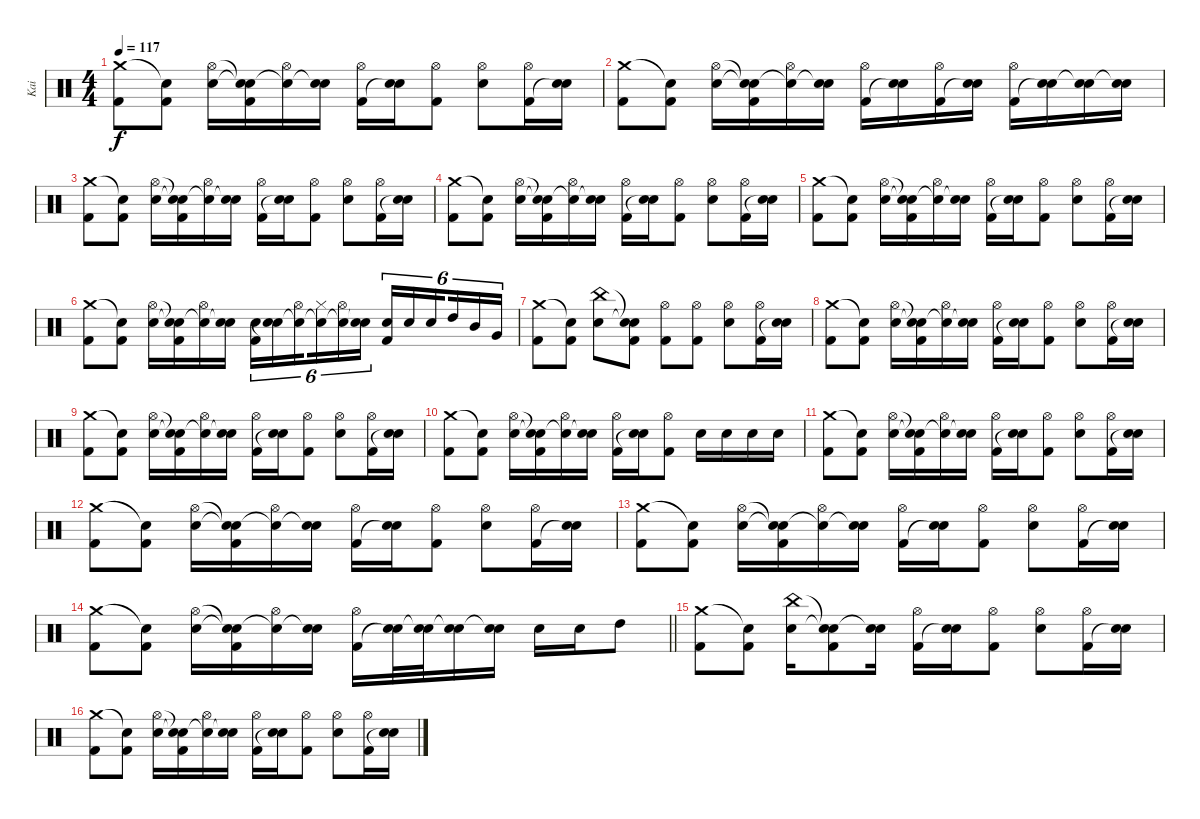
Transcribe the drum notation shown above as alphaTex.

\track ("Kai" "Kai") {instrument percussion}
\staff {score}
\articulation defaults
\ts (4 4)
\tempo 117
\clef neutral
\ks c
("Crash medium (hit)" "Kick (hit) 2").8{dy f} ("Snare (hit)"{t} "Kick (hit) 2").8 ("Hi-Hat (open)" "Snare (hit) 2").16 ("Snare (hit)"{t} "Snare (hit)"{t} "Kick (hit) 2").16 ("Hi-Hat (open)" "Snare (hit)"{t}).16 ("Snare (hit) 2" "Snare (hit)"{t}).16 ("Hi-Hat (open)" "Kick (hit) 2").16 ("Snare (hit) 2" "Snare (hit)"{t}).16 ("Hi-Hat (open)" "Kick (hit) 2").8 ("Hi-Hat (open)" "Snare (hit) 2").8 ("Hi-Hat (open)" "Kick (hit) 2").16 ("Snare (hit) 2" "Snare (hit)"{t}).16 |
("Crash medium (hit)" "Kick (hit) 2").8 ("Snare (hit)"{t} "Kick (hit) 2").8 ("Hi-Hat (open)" "Snare (hit) 2").16 ("Snare (hit)"{t} "Snare (hit)"{t} "Kick (hit) 2").16 ("Hi-Hat (open)" "Snare (hit)"{t}).16 ("Snare (hit) 2" "Snare (hit)"{t}).16 ("Hi-Hat (open)" "Kick (hit) 2").16 ("Snare (hit) 2" "Snare (hit)"{t}).16 ("Hi-Hat (open)" "Kick (hit) 2").16 ("Snare (hit) 2" "Snare (hit)"{t}).16 ("Hi-Hat (open)" "Kick (hit) 2").16 ("Snare (hit) 2" "Snare (hit)"{t}).16 ("Snare (hit) 2" "Snare (hit)"{t}).16 ("Snare (hit) 2" "Snare (hit)"{t}).16 |
("Crash medium (hit)" "Kick (hit) 2").8 ("Snare (hit)"{t} "Kick (hit) 2").8 ("Hi-Hat (open)" "Snare (hit) 2").16 ("Snare (hit)"{t} "Snare (hit)"{t} "Kick (hit) 2").16 ("Hi-Hat (open)" "Snare (hit)"{t}).16 ("Snare (hit) 2" "Snare (hit)"{t}).16 ("Hi-Hat (open)" "Kick (hit) 2").16 ("Snare (hit) 2" "Snare (hit)"{t}).16 ("Hi-Hat (open)" "Kick (hit) 2").8 ("Hi-Hat (open)" "Snare (hit) 2").8 ("Hi-Hat (open)" "Kick (hit) 2").16 ("Snare (hit) 2" "Snare (hit)"{t}).16 |
("Crash medium (hit)" "Kick (hit) 2").8 ("Snare (hit)"{t} "Kick (hit) 2").8 ("Hi-Hat (open)" "Snare (hit) 2").16 ("Snare (hit)"{t} "Snare (hit)"{t} "Kick (hit) 2").16 ("Hi-Hat (open)" "Snare (hit)"{t}).16 ("Snare (hit) 2" "Snare (hit)"{t}).16 ("Hi-Hat (open)" "Kick (hit) 2").16 ("Snare (hit) 2" "Snare (hit)"{t}).16 ("Hi-Hat (open)" "Kick (hit) 2").8 ("Hi-Hat (open)" "Snare (hit) 2").8 ("Hi-Hat (open)" "Kick (hit) 2").16 ("Snare (hit) 2" "Snare (hit)"{t}).16 |
("Crash medium (hit)" "Kick (hit) 2").8 ("Snare (hit)"{t} "Kick (hit) 2").8 ("Hi-Hat (open)" "Snare (hit) 2").16 ("Snare (hit)"{t} "Snare (hit)"{t} "Kick (hit) 2").16 ("Hi-Hat (open)" "Snare (hit)"{t}).16 ("Snare (hit) 2" "Snare (hit)"{t}).16 ("Hi-Hat (open)" "Kick (hit) 2").16 ("Snare (hit) 2" "Snare (hit)"{t}).16 ("Hi-Hat (open)" "Kick (hit) 2").8 ("Hi-Hat (open)" "Snare (hit) 2").8 ("Hi-Hat (open)" "Kick (hit) 2").16 ("Snare (hit) 2" "Snare (hit)"{t}).16 |
("Crash medium (hit)" "Kick (hit) 2").8 ("Snare (hit)"{t} "Kick (hit) 2").8 ("Hi-Hat (open)" "Snare (hit) 2").16 ("Snare (hit)"{t} "Snare (hit)"{t} "Kick (hit) 2").16 ("Hi-Hat (open)" "Snare (hit)"{t}).16 ("Snare (hit) 2" "Snare (hit)"{t}).16 ("Snare (hit) 2" "Kick (hit) 2").16{tu (6 4)} ("Snare (hit) 2" "Snare (hit)"{t}).16{tu (6 4)} ("Hi-Hat (open)" "Snare (hit)"{t}).16{tu (6 4) beam splitsecondary} ("Hi-Hat (closed)" "Snare (hit)"{t}).16{tu (6 4)} ("Hi-Hat (open)" "Snare (hit)"{t}).16{tu (6 4)} ("Snare (hit) 2" "Snare (hit)"{t}).16{tu (6 4)} ("Snare (hit) 2" "Kick (hit) 2").16{tu (6 4)} "Snare (hit) 2".16{tu (6 4)} "Snare (hit) 2".16{tu (6 4) beam splitsecondary} "High Tom (hit)".16{tu (6 4)} "Mid Tom (hit)".16{tu (6 4)} "Very Low Tom (hit)".16{tu (6 4)} |
("Crash medium (hit)" "Kick (hit) 2").8 ("Snare (hit)"{t} "Kick (hit) 2").8 ("China (hit)" "Snare (hit) 2").8 ("Snare (hit)"{t} "Snare (hit)"{t} "Kick (hit) 2").8 ("Hi-Hat (open)" "Kick (hit) 2").8 ("Hi-Hat (open)" "Kick (hit) 2").8 ("Hi-Hat (open)" "Snare (hit) 2").8 ("Hi-Hat (open)" "Kick (hit) 2").16 ("Snare (hit) 2" "Snare (hit)"{t}).16 |
("Crash medium (hit)" "Kick (hit) 2").8 ("Snare (hit)"{t} "Kick (hit) 2").8 ("Hi-Hat (open)" "Snare (hit) 2").16 ("Snare (hit)"{t} "Snare (hit)"{t} "Kick (hit) 2").16 ("Hi-Hat (open)" "Snare (hit)"{t}).16 ("Snare (hit) 2" "Snare (hit)"{t}).16 ("Hi-Hat (open)" "Kick (hit) 2").16 ("Snare (hit) 2" "Snare (hit)"{t}).16 ("Hi-Hat (open)" "Kick (hit) 2").8 ("Hi-Hat (open)" "Snare (hit) 2").8 ("Hi-Hat (open)" "Kick (hit) 2").16 ("Snare (hit) 2" "Snare (hit)"{t}).16 |
("Crash medium (hit)" "Kick (hit) 2").8 ("Snare (hit)"{t} "Kick (hit) 2").8 ("Hi-Hat (open)" "Snare (hit) 2").16 ("Snare (hit)"{t} "Snare (hit)"{t} "Kick (hit) 2").16 ("Hi-Hat (open)" "Snare (hit)"{t}).16 ("Snare (hit) 2" "Snare (hit)"{t}).16 ("Hi-Hat (open)" "Kick (hit) 2").16 ("Snare (hit) 2" "Snare (hit)"{t}).16 ("Hi-Hat (open)" "Kick (hit) 2").8 ("Hi-Hat (open)" "Snare (hit) 2").8 ("Hi-Hat (open)" "Kick (hit) 2").16 ("Snare (hit) 2" "Snare (hit)"{t}).16 |
("Crash medium (hit)" "Kick (hit) 2").8 ("Snare (hit)"{t} "Kick (hit) 2").8 ("Hi-Hat (open)" "Snare (hit) 2").16 ("Snare (hit)"{t} "Snare (hit)"{t} "Kick (hit) 2").16 ("Hi-Hat (open)" "Snare (hit)"{t}).16 ("Snare (hit) 2" "Snare (hit)"{t}).16 ("Hi-Hat (open)" "Kick (hit) 2").16 ("Snare (hit) 2" "Snare (hit)"{t}).16 ("Hi-Hat (open)" "Kick (hit) 2").8 "Snare (hit) 2".16 "Snare (hit) 2".16 "Snare (hit) 2".16 "Snare (hit) 2".16 |
("Crash medium (hit)" "Kick (hit) 2").8 ("Snare (hit)"{t} "Kick (hit) 2").8 ("Hi-Hat (open)" "Snare (hit) 2").16 ("Snare (hit)"{t} "Snare (hit)"{t} "Kick (hit) 2").16 ("Hi-Hat (open)" "Snare (hit)"{t}).16 ("Snare (hit) 2" "Snare (hit)"{t}).16 ("Hi-Hat (open)" "Kick (hit) 2").16 ("Snare (hit) 2" "Snare (hit)"{t}).16 ("Hi-Hat (open)" "Kick (hit) 2").8 ("Hi-Hat (open)" "Snare (hit) 2").8 ("Hi-Hat (open)" "Kick (hit) 2").16 ("Snare (hit) 2" "Snare (hit)"{t}).16 |
("Crash medium (hit)" "Kick (hit) 2").8 ("Snare (hit)"{t} "Kick (hit) 2").8 ("Hi-Hat (open)" "Snare (hit) 2").16 ("Snare (hit)"{t} "Snare (hit)"{t} "Kick (hit) 2").16 ("Hi-Hat (open)" "Snare (hit)"{t}).16 ("Snare (hit) 2" "Snare (hit)"{t}).16 ("Hi-Hat (open)" "Kick (hit) 2").16 ("Snare (hit) 2" "Snare (hit)"{t}).16 ("Hi-Hat (open)" "Kick (hit) 2").8 ("Hi-Hat (open)" "Snare (hit) 2").8 ("Hi-Hat (open)" "Kick (hit) 2").16 ("Snare (hit) 2" "Snare (hit)"{t}).16 |
("Crash medium (hit)" "Kick (hit) 2").8 ("Snare (hit)"{t} "Kick (hit) 2").8 ("Hi-Hat (open)" "Snare (hit) 2").16 ("Snare (hit)"{t} "Snare (hit)"{t} "Kick (hit) 2").16 ("Hi-Hat (open)" "Snare (hit)"{t}).16 ("Snare (hit) 2" "Snare (hit)"{t}).16 ("Hi-Hat (open)" "Kick (hit) 2").16 ("Snare (hit) 2" "Snare (hit)"{t}).16 ("Hi-Hat (open)" "Kick (hit) 2").8 ("Hi-Hat (open)" "Snare (hit) 2").8 ("Hi-Hat (open)" "Kick (hit) 2").16 ("Snare (hit) 2" "Snare (hit)"{t}).16 |
\barLineRight lightlight
("Crash medium (hit)" "Kick (hit) 2").8 ("Snare (hit)"{t} "Kick (hit) 2").8 ("Hi-Hat (open)" "Snare (hit) 2").16 ("Snare (hit)"{t} "Snare (hit)"{t} "Kick (hit) 2").16 ("Hi-Hat (open)" "Snare (hit)"{t}).16 ("Snare (hit) 2" "Snare (hit)"{t}).16 ("Hi-Hat (open)" "Kick (hit) 2").16 ("Snare (hit) 2" "Snare (hit)"{t}).32 ("Snare (hit) 2" "Snare (hit)"{t}).32 ("Snare (hit) 2" "Snare (hit)"{t}).16 ("Snare (hit) 2" "Snare (hit)"{t}).16 "Snare (hit) 2".16 "Snare (hit) 2".16 "High Tom (hit)".8 |
("Crash medium (hit)" "Kick (hit) 2").8 ("Snare (hit)"{t} "Kick (hit) 2").8 ("China (hit)" "Snare (hit) 2").16 ("Snare (hit)"{t} "Snare (hit)"{t} "Kick (hit) 2").8 ("Snare (hit) 2" "Snare (hit)"{t}).16 ("Hi-Hat (open)" "Kick (hit) 2").16 ("Snare (hit) 2" "Snare (hit)"{t}).16 ("Hi-Hat (open)" "Kick (hit) 2").8 ("Hi-Hat (open)" "Snare (hit) 2").8 ("Hi-Hat (open)" "Kick (hit) 2").16 ("Snare (hit) 2" "Snare (hit)"{t}).16 |
("Crash medium (hit)" "Kick (hit) 2").8 ("Snare (hit)"{t} "Kick (hit) 2").8 ("Hi-Hat (open)" "Snare (hit) 2").16 ("Snare (hit)"{t} "Snare (hit)"{t} "Kick (hit) 2").16 ("Hi-Hat (open)" "Snare (hit)"{t}).16 ("Snare (hit) 2" "Snare (hit)"{t}).16 ("Hi-Hat (open)" "Kick (hit) 2").16 ("Snare (hit) 2" "Snare (hit)"{t}).16 ("Hi-Hat (open)" "Kick (hit) 2").8 ("Hi-Hat (open)" "Snare (hit) 2").8 ("Hi-Hat (open)" "Kick (hit) 2").16 ("Snare (hit) 2" "Snare (hit)"{t}).16
